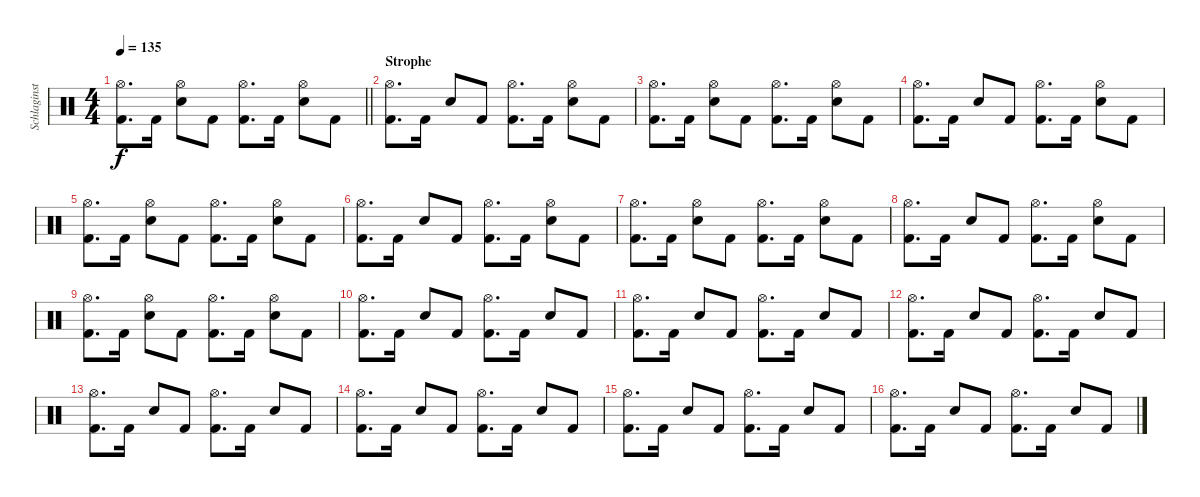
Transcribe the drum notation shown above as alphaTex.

\track ("Schlaginstrumente - Auswahl" "Schlaginst") {instrument percussion}
\staff {score}
\articulation defaults
\ts (4 4)
\tempo 135
\clef neutral
\barLineRight lightlight
\ks c
("Hi-Hat (open)" "Kick (hit) 2").8{d dy f} "Kick (hit) 2".16 ("Hi-Hat (open)" "Electric Snare (hit)").8 "Kick (hit) 2".8 ("Hi-Hat (open)" "Kick (hit) 2").8{d} "Kick (hit) 2".16 ("Hi-Hat (open)" "Electric Snare (hit)").8 "Kick (hit) 2".8 |
\section ("" "Strophe")
("Hi-Hat (open)" "Kick (hit) 2").8{d} "Kick (hit) 2".16 "Electric Snare (hit)".8 "Kick (hit) 2".8 ("Hi-Hat (open)" "Kick (hit) 2").8{d} "Kick (hit) 2".16 ("Hi-Hat (open)" "Electric Snare (hit)").8 "Kick (hit) 2".8 |
("Hi-Hat (open)" "Kick (hit) 2").8{d} "Kick (hit) 2".16 ("Hi-Hat (open)" "Electric Snare (hit)").8 "Kick (hit) 2".8 ("Hi-Hat (open)" "Kick (hit) 2").8{d} "Kick (hit) 2".16 ("Hi-Hat (open)" "Electric Snare (hit)").8 "Kick (hit) 2".8 |
("Hi-Hat (open)" "Kick (hit) 2").8{d} "Kick (hit) 2".16 "Electric Snare (hit)".8 "Kick (hit) 2".8 ("Hi-Hat (open)" "Kick (hit) 2").8{d} "Kick (hit) 2".16 ("Hi-Hat (open)" "Electric Snare (hit)").8 "Kick (hit) 2".8 |
("Hi-Hat (open)" "Kick (hit) 2").8{d} "Kick (hit) 2".16 ("Hi-Hat (open)" "Electric Snare (hit)").8 "Kick (hit) 2".8 ("Hi-Hat (open)" "Kick (hit) 2").8{d} "Kick (hit) 2".16 ("Hi-Hat (open)" "Electric Snare (hit)").8 "Kick (hit) 2".8 |
("Hi-Hat (open)" "Kick (hit) 2").8{d} "Kick (hit) 2".16 "Electric Snare (hit)".8 "Kick (hit) 2".8 ("Hi-Hat (open)" "Kick (hit) 2").8{d} "Kick (hit) 2".16 ("Hi-Hat (open)" "Electric Snare (hit)").8 "Kick (hit) 2".8 |
("Hi-Hat (open)" "Kick (hit) 2").8{d} "Kick (hit) 2".16 ("Hi-Hat (open)" "Electric Snare (hit)").8 "Kick (hit) 2".8 ("Hi-Hat (open)" "Kick (hit) 2").8{d} "Kick (hit) 2".16 ("Hi-Hat (open)" "Electric Snare (hit)").8 "Kick (hit) 2".8 |
("Hi-Hat (open)" "Kick (hit) 2").8{d} "Kick (hit) 2".16 "Electric Snare (hit)".8 "Kick (hit) 2".8 ("Hi-Hat (open)" "Kick (hit) 2").8{d} "Kick (hit) 2".16 ("Hi-Hat (open)" "Electric Snare (hit)").8 "Kick (hit) 2".8 |
("Hi-Hat (open)" "Kick (hit) 2").8{d} "Kick (hit) 2".16 ("Hi-Hat (open)" "Electric Snare (hit)").8 "Kick (hit) 2".8 ("Hi-Hat (open)" "Kick (hit) 2").8{d} "Kick (hit) 2".16 ("Hi-Hat (open)" "Electric Snare (hit)").8 "Kick (hit) 2".8 |
("Hi-Hat (open)" "Kick (hit) 2").8{d} "Kick (hit) 2".16 "Electric Snare (hit)".8 "Kick (hit) 2".8 ("Hi-Hat (open)" "Kick (hit) 2").8{d} "Kick (hit) 2".16 "Electric Snare (hit)".8 "Kick (hit) 2".8 |
("Hi-Hat (open)" "Kick (hit) 2").8{d} "Kick (hit) 2".16 "Electric Snare (hit)".8 "Kick (hit) 2".8 ("Hi-Hat (open)" "Kick (hit) 2").8{d} "Kick (hit) 2".16 "Electric Snare (hit)".8 "Kick (hit) 2".8 |
("Hi-Hat (open)" "Kick (hit) 2").8{d} "Kick (hit) 2".16 "Electric Snare (hit)".8 "Kick (hit) 2".8 ("Hi-Hat (open)" "Kick (hit) 2").8{d} "Kick (hit) 2".16 "Electric Snare (hit)".8 "Kick (hit) 2".8 |
("Hi-Hat (open)" "Kick (hit) 2").8{d} "Kick (hit) 2".16 "Electric Snare (hit)".8 "Kick (hit) 2".8 ("Hi-Hat (open)" "Kick (hit) 2").8{d} "Kick (hit) 2".16 "Electric Snare (hit)".8 "Kick (hit) 2".8 |
("Hi-Hat (open)" "Kick (hit) 2").8{d} "Kick (hit) 2".16 "Electric Snare (hit)".8 "Kick (hit) 2".8 ("Hi-Hat (open)" "Kick (hit) 2").8{d} "Kick (hit) 2".16 "Electric Snare (hit)".8 "Kick (hit) 2".8 |
("Hi-Hat (open)" "Kick (hit) 2").8{d} "Kick (hit) 2".16 "Electric Snare (hit)".8 "Kick (hit) 2".8 ("Hi-Hat (open)" "Kick (hit) 2").8{d} "Kick (hit) 2".16 "Electric Snare (hit)".8 "Kick (hit) 2".8 |
("Hi-Hat (open)" "Kick (hit) 2").8{d} "Kick (hit) 2".16 "Electric Snare (hit)".8 "Kick (hit) 2".8 ("Hi-Hat (open)" "Kick (hit) 2").8{d} "Kick (hit) 2".16 "Electric Snare (hit)".8 "Kick (hit) 2".8
